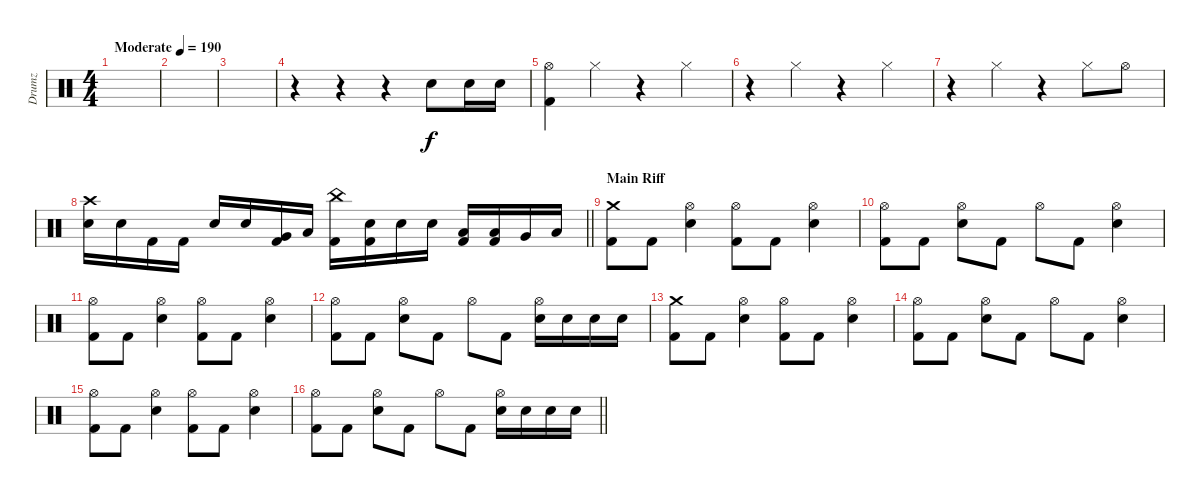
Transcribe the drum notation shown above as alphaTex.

\track ("Drumz" "Drumz") {instrument percussion}
\staff {score}
\articulation defaults
\ts (4 4)
\tempo (190 "Moderate")
\clef neutral
\ks c
|
|
|
r.4 r.4 r.4 "Snare (hit) 2".8 "Snare (hit) 2".16 "Snare (hit) 2".16 |
("Hi-Hat (open)" "Kick (hit) 2").4 "Hi-Hat (closed)".4 r.4 "Hi-Hat (closed)".4 |
r.4 "Hi-Hat (closed)".4 r.4 "Hi-Hat (closed)".4 |
r.4 "Hi-Hat (closed)".4 r.4 "Hi-Hat (closed)".8 "Hi-Hat (open)".8 |
\barLineRight lightlight
("Crash high (hit)" "Snare (hit) 2").16 "Snare (hit) 2".16 "Kick (hit) 2".16 "Kick (hit) 2".16 "Snare (hit) 2".16 "Snare (hit) 2".16 ("Very Low Tom (hit)" "Kick (hit) 2").16 "Low Floor Tom (hit)".16 ("China (hit)" "Kick (hit) 2").16 ("Snare (hit) 2" "Kick (hit) 2").16 "Snare (hit) 2".16 "Snare (hit) 2".16 ("Low Tom (hit)" "Kick (hit) 2").16 ("Low Tom (hit)" "Kick (hit) 2").16 "Very Low Tom (hit)".16 "Low Floor Tom (hit)".16 |
\section ("" "Main Riff")
("Crash medium (hit)" "Kick (hit) 2").8 "Kick (hit) 2".8 ("Snare (hit) 2" "Hi-Hat (open)").4 ("Hi-Hat (open)" "Kick (hit) 2").8 "Kick (hit) 2".8 ("Snare (hit) 2" "Hi-Hat (open)").4 |
("Hi-Hat (open)" "Kick (hit) 2").8 "Kick (hit) 2".8 ("Snare (hit) 2" "Hi-Hat (open)").8 "Kick (hit) 2".8 "Hi-Hat (open)".8 "Kick (hit) 2".8 ("Snare (hit) 2" "Hi-Hat (open)").4 |
("Hi-Hat (open)" "Kick (hit) 2").8 "Kick (hit) 2".8 ("Snare (hit) 2" "Hi-Hat (open)").4 ("Hi-Hat (open)" "Kick (hit) 2").8 "Kick (hit) 2".8 ("Snare (hit) 2" "Hi-Hat (open)").4 |
("Hi-Hat (open)" "Kick (hit) 2").8 "Kick (hit) 2".8 ("Snare (hit) 2" "Hi-Hat (open)").8 "Kick (hit) 2".8 "Hi-Hat (open)".8 "Kick (hit) 2".8 ("Snare (hit) 2" "Hi-Hat (open)").16 "Snare (hit) 2".16 "Snare (hit) 2".16 "Snare (hit) 2".16 |
("Crash medium (hit)" "Kick (hit) 2").8 "Kick (hit) 2".8 ("Snare (hit) 2" "Hi-Hat (open)").4 ("Hi-Hat (open)" "Kick (hit) 2").8 "Kick (hit) 2".8 ("Snare (hit) 2" "Hi-Hat (open)").4 |
("Hi-Hat (open)" "Kick (hit) 2").8 "Kick (hit) 2".8 ("Snare (hit) 2" "Hi-Hat (open)").8 "Kick (hit) 2".8 "Hi-Hat (open)".8 "Kick (hit) 2".8 ("Snare (hit) 2" "Hi-Hat (open)").4 |
("Hi-Hat (open)" "Kick (hit) 2").8 "Kick (hit) 2".8 ("Snare (hit) 2" "Hi-Hat (open)").4 ("Hi-Hat (open)" "Kick (hit) 2").8 "Kick (hit) 2".8 ("Snare (hit) 2" "Hi-Hat (open)").4 |
\barLineRight lightlight
("Hi-Hat (open)" "Kick (hit) 2").8 "Kick (hit) 2".8 ("Snare (hit) 2" "Hi-Hat (open)").8 "Kick (hit) 2".8 "Hi-Hat (open)".8 "Kick (hit) 2".8 ("Snare (hit) 2" "Hi-Hat (open)").16 "Snare (hit) 2".16 "Snare (hit) 2".16 "Snare (hit) 2".16
